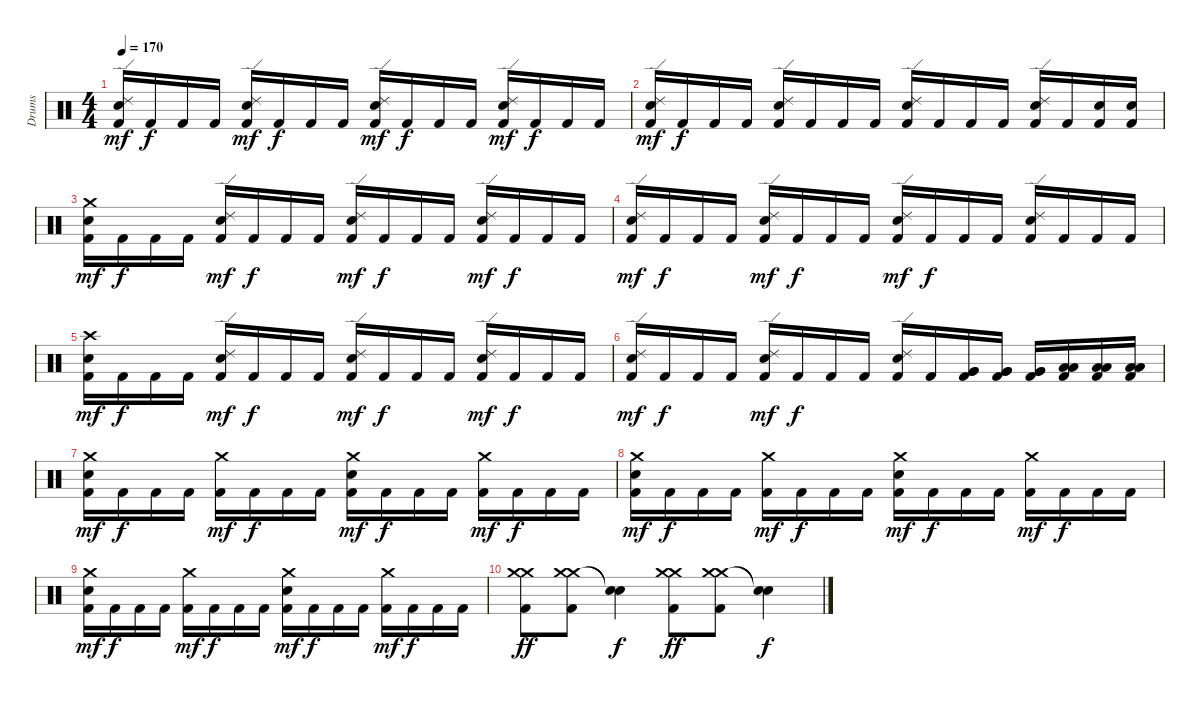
\track ("Drums" "Drums") {instrument percussion}
\staff {score}
\articulation defaults
\ts (4 4)
\tempo 170
\clef neutral
\ks c
("Ride (edge) 2" "Snare (hit) 2" "Kick (hit) 2").16{dy mf} "Kick (hit) 2".16{dy f} "Kick (hit) 2".16 "Kick (hit) 2".16 ("Ride (edge) 2" "Snare (hit) 2" "Kick (hit) 2").16{dy mf} "Kick (hit) 2".16{dy f} "Kick (hit) 2".16 "Kick (hit) 2".16 ("Ride (edge) 2" "Snare (hit) 2" "Kick (hit) 2").16{dy mf} "Kick (hit) 2".16{dy f} "Kick (hit) 2".16 "Kick (hit) 2".16 ("Ride (edge) 2" "Snare (hit) 2" "Kick (hit) 2").16{dy mf} "Kick (hit) 2".16{dy f} "Kick (hit) 2".16 "Kick (hit) 2".16 |
("Ride (edge) 2" "Snare (hit) 2" "Kick (hit) 2").16{dy mf} "Kick (hit) 2".16{dy f} "Kick (hit) 2".16 "Kick (hit) 2".16 ("Ride (edge) 2" "Snare (hit) 2" "Kick (hit) 2").16 "Kick (hit) 2".16 "Kick (hit) 2".16 "Kick (hit) 2".16 ("Ride (edge) 2" "Snare (hit) 2" "Kick (hit) 2").16 "Kick (hit) 2".16 "Kick (hit) 2".16 "Kick (hit) 2".16 ("Ride (edge) 2" "Snare (hit) 2" "Kick (hit) 2").16 "Kick (hit) 2".16 ("Snare (hit) 2" "Kick (hit) 2").16 ("Snare (hit) 2" "Kick (hit) 2").16 |
("Crash medium (hit)" "Snare (hit) 2" "Kick (hit) 2").16{dy mf} "Kick (hit) 2".16{dy f} "Kick (hit) 2".16 "Kick (hit) 2".16 ("Ride (edge) 2" "Snare (hit) 2" "Kick (hit) 2").16{dy mf} "Kick (hit) 2".16{dy f} "Kick (hit) 2".16 "Kick (hit) 2".16 ("Ride (edge) 2" "Snare (hit) 2" "Kick (hit) 2").16{dy mf} "Kick (hit) 2".16{dy f} "Kick (hit) 2".16 "Kick (hit) 2".16 ("Ride (edge) 2" "Snare (hit) 2" "Kick (hit) 2").16{dy mf} "Kick (hit) 2".16{dy f} "Kick (hit) 2".16 "Kick (hit) 2".16 |
("Ride (edge) 2" "Snare (hit) 2" "Kick (hit) 2").16{dy mf} "Kick (hit) 2".16{dy f} "Kick (hit) 2".16 "Kick (hit) 2".16 ("Ride (edge) 2" "Snare (hit) 2" "Kick (hit) 2").16{dy mf} "Kick (hit) 2".16{dy f} "Kick (hit) 2".16 "Kick (hit) 2".16 ("Ride (edge) 2" "Snare (hit) 2" "Kick (hit) 2").16{dy mf} "Kick (hit) 2".16{dy f} "Kick (hit) 2".16 "Kick (hit) 2".16 ("Ride (edge) 2" "Snare (hit) 2" "Kick (hit) 2").16 "Kick (hit) 2".16 "Kick (hit) 2".16 "Kick (hit) 2".16 |
("Crash high (hit)" "Snare (hit) 2" "Kick (hit) 2").16{dy mf} "Kick (hit) 2".16{dy f} "Kick (hit) 2".16 "Kick (hit) 2".16 ("Ride (edge) 2" "Snare (hit) 2" "Kick (hit) 2").16{dy mf} "Kick (hit) 2".16{dy f} "Kick (hit) 2".16 "Kick (hit) 2".16 ("Ride (edge) 2" "Snare (hit) 2" "Kick (hit) 2").16{dy mf} "Kick (hit) 2".16{dy f} "Kick (hit) 2".16 "Kick (hit) 2".16 ("Ride (edge) 2" "Snare (hit) 2" "Kick (hit) 2").16{dy mf} "Kick (hit) 2".16{dy f} "Kick (hit) 2".16 "Kick (hit) 2".16 |
("Ride (edge) 2" "Snare (hit) 2" "Kick (hit) 2").16{dy mf} "Kick (hit) 2".16{dy f} "Kick (hit) 2".16 "Kick (hit) 2".16 ("Ride (edge) 2" "Snare (hit) 2" "Kick (hit) 2").16{dy mf} "Kick (hit) 2".16{dy f} "Kick (hit) 2".16 "Kick (hit) 2".16 ("Ride (edge) 2" "Snare (hit) 2" "Kick (hit) 2").16 "Kick (hit) 2".16 ("Very Low Tom (hit)" "Very Low Tom (hit)" "Kick (hit) 2").16 ("Very Low Tom (hit)" "Very Low Tom (hit)" "Kick (hit) 2").16 ("Very Low Tom (hit)" "Very Low Tom (hit)" "Kick (hit) 2").16 ("Low Floor Tom (hit)" "Low Floor Tom (hit)" "Kick (hit) 2").16 ("Low Floor Tom (hit)" "Low Floor Tom (hit)" "Kick (hit) 2").16 ("Low Floor Tom (hit)" "Low Floor Tom (hit)" "Kick (hit) 2").16 |
("Crash medium (hit)" "Snare (hit) 2" "Kick (hit) 2").16{dy mf} "Kick (hit) 2".16{dy f} "Kick (hit) 2".16 "Kick (hit) 2".16 ("Crash medium (hit)" "Kick (hit) 2").16{dy mf} "Kick (hit) 2".16{dy f} "Kick (hit) 2".16 "Kick (hit) 2".16 ("Crash medium (hit)" "Snare (hit) 2" "Kick (hit) 2").16{dy mf} "Kick (hit) 2".16{dy f} "Kick (hit) 2".16 "Kick (hit) 2".16 ("Crash medium (hit)" "Kick (hit) 2").16{dy mf} "Kick (hit) 2".16{dy f} "Kick (hit) 2".16 "Kick (hit) 2".16 |
("Crash medium (hit)" "Snare (hit) 2" "Kick (hit) 2").16{dy mf} "Kick (hit) 2".16{dy f} "Kick (hit) 2".16 "Kick (hit) 2".16 ("Crash medium (hit)" "Kick (hit) 2").16{dy mf} "Kick (hit) 2".16{dy f} "Kick (hit) 2".16 "Kick (hit) 2".16 ("Crash medium (hit)" "Snare (hit) 2" "Kick (hit) 2").16{dy mf} "Kick (hit) 2".16{dy f} "Kick (hit) 2".16 "Kick (hit) 2".16 ("Crash medium (hit)" "Kick (hit) 2").16{dy mf} "Kick (hit) 2".16{dy f} "Kick (hit) 2".16 "Kick (hit) 2".16 |
("Crash medium (hit)" "Snare (hit) 2" "Kick (hit) 2").16{dy mf} "Kick (hit) 2".16{dy f} "Kick (hit) 2".16 "Kick (hit) 2".16 ("Crash medium (hit)" "Kick (hit) 2").16{dy mf} "Kick (hit) 2".16{dy f} "Kick (hit) 2".16 "Kick (hit) 2".16 ("Crash medium (hit)" "Snare (hit) 2" "Kick (hit) 2").16{dy mf} "Kick (hit) 2".16{dy f} "Kick (hit) 2".16 "Kick (hit) 2".16 ("Crash medium (hit)" "Kick (hit) 2").16{dy mf} "Kick (hit) 2".16{dy f} "Kick (hit) 2".16 "Kick (hit) 2".16 |
("Crash medium (hit)" "Crash medium (hit)" "Kick (hit) 2").8{dy ff} ("Crash medium (hit)" "Crash medium (hit)" "Kick (hit) 2").8 ("Snare (hit)"{t} "Snare (hit)"{t}).4{dy f} ("Crash medium (hit)" "Crash medium (hit)" "Kick (hit) 2").8{dy ff} ("Crash medium (hit)" "Crash medium (hit)" "Kick (hit) 2").8 ("Snare (hit)"{t} "Snare (hit)"{t}).4{dy f}
